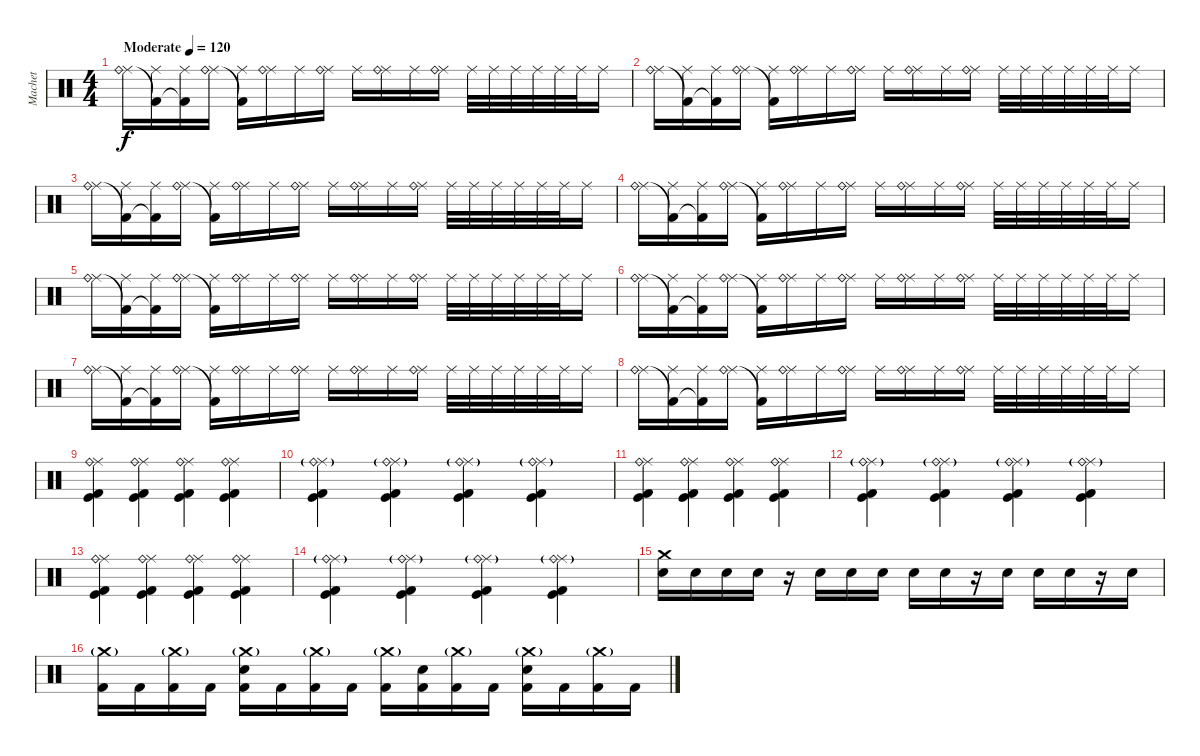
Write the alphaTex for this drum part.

\track ("Machet" "Machet") {instrument percussion}
\staff {score}
\articulation defaults
\ts (4 4)
\tempo (120 "Moderate")
\clef neutral
\ks c
("Ride (middle)" "Ride (bell)").16{dy f} ("Ride (middle)" "Kick (hit) 2"{t}).16 ("Ride (middle)" "Kick (hit) 2"{t}).16 ("Ride (middle)" "Ride (bell)").16 ("Ride (middle)" "Kick (hit) 2"{t}).16 ("Ride (middle)" "Ride (bell)").16 "Ride (middle)".16 ("Ride (middle)" "Ride (bell)").16 "Ride (middle)".16 ("Ride (middle)" "Ride (bell)").16 "Ride (middle)".16 ("Ride (middle)" "Ride (bell)").16 "Ride (middle)".32 "Ride (middle)".32 "Ride (middle)".32 "Ride (middle)".32 "Ride (middle)".32 "Ride (middle)".32 "Ride (middle)".16 |
("Ride (middle)" "Ride (bell)").16 ("Ride (middle)" "Kick (hit) 2"{t}).16 ("Ride (middle)" "Kick (hit) 2"{t}).16 ("Ride (middle)" "Ride (bell)").16 ("Ride (middle)" "Kick (hit) 2"{t}).16 ("Ride (middle)" "Ride (bell)").16 "Ride (middle)".16 ("Ride (middle)" "Ride (bell)").16 "Ride (middle)".16 ("Ride (middle)" "Ride (bell)").16 "Ride (middle)".16 ("Ride (middle)" "Ride (bell)").16 "Ride (middle)".32 "Ride (middle)".32 "Ride (middle)".32 "Ride (middle)".32 "Ride (middle)".32 "Ride (middle)".32 "Ride (middle)".16 |
("Ride (middle)" "Ride (bell)").16 ("Ride (middle)" "Kick (hit) 2"{t}).16 ("Ride (middle)" "Kick (hit) 2"{t}).16 ("Ride (middle)" "Ride (bell)").16 ("Ride (middle)" "Kick (hit) 2"{t}).16 ("Ride (middle)" "Ride (bell)").16 "Ride (middle)".16 ("Ride (middle)" "Ride (bell)").16 "Ride (middle)".16 ("Ride (middle)" "Ride (bell)").16 "Ride (middle)".16 ("Ride (middle)" "Ride (bell)").16 "Ride (middle)".32 "Ride (middle)".32 "Ride (middle)".32 "Ride (middle)".32 "Ride (middle)".32 "Ride (middle)".32 "Ride (middle)".16 |
("Ride (middle)" "Ride (bell)").16 ("Ride (middle)" "Kick (hit) 2"{t}).16 ("Ride (middle)" "Kick (hit) 2"{t}).16 ("Ride (middle)" "Ride (bell)").16 ("Ride (middle)" "Kick (hit) 2"{t}).16 ("Ride (middle)" "Ride (bell)").16 "Ride (middle)".16 ("Ride (middle)" "Ride (bell)").16 "Ride (middle)".16 ("Ride (middle)" "Ride (bell)").16 "Ride (middle)".16 ("Ride (middle)" "Ride (bell)").16 "Ride (middle)".32 "Ride (middle)".32 "Ride (middle)".32 "Ride (middle)".32 "Ride (middle)".32 "Ride (middle)".32 "Ride (middle)".16 |
("Ride (middle)" "Ride (bell)").16 ("Ride (middle)" "Kick (hit) 2"{t}).16 ("Ride (middle)" "Kick (hit) 2"{t}).16 ("Ride (middle)" "Ride (bell)").16 ("Ride (middle)" "Kick (hit) 2"{t}).16 ("Ride (middle)" "Ride (bell)").16 "Ride (middle)".16 ("Ride (middle)" "Ride (bell)").16 "Ride (middle)".16 ("Ride (middle)" "Ride (bell)").16 "Ride (middle)".16 ("Ride (middle)" "Ride (bell)").16 "Ride (middle)".32 "Ride (middle)".32 "Ride (middle)".32 "Ride (middle)".32 "Ride (middle)".32 "Ride (middle)".32 "Ride (middle)".16 |
("Ride (middle)" "Ride (bell)").16 ("Ride (middle)" "Kick (hit) 2"{t}).16 ("Ride (middle)" "Kick (hit) 2"{t}).16 ("Ride (middle)" "Ride (bell)").16 ("Ride (middle)" "Kick (hit) 2"{t}).16 ("Ride (middle)" "Ride (bell)").16 "Ride (middle)".16 ("Ride (middle)" "Ride (bell)").16 "Ride (middle)".16 ("Ride (middle)" "Ride (bell)").16 "Ride (middle)".16 ("Ride (middle)" "Ride (bell)").16 "Ride (middle)".32 "Ride (middle)".32 "Ride (middle)".32 "Ride (middle)".32 "Ride (middle)".32 "Ride (middle)".32 "Ride (middle)".16 |
("Ride (middle)" "Ride (bell)").16 ("Ride (middle)" "Kick (hit) 2"{t}).16 ("Ride (middle)" "Kick (hit) 2"{t}).16 ("Ride (middle)" "Ride (bell)").16 ("Ride (middle)" "Kick (hit) 2"{t}).16 ("Ride (middle)" "Ride (bell)").16 "Ride (middle)".16 ("Ride (middle)" "Ride (bell)").16 "Ride (middle)".16 ("Ride (middle)" "Ride (bell)").16 "Ride (middle)".16 ("Ride (middle)" "Ride (bell)").16 "Ride (middle)".32 "Ride (middle)".32 "Ride (middle)".32 "Ride (middle)".32 "Ride (middle)".32 "Ride (middle)".32 "Ride (middle)".16 |
("Ride (middle)" "Ride (bell)").16 ("Ride (middle)" "Kick (hit) 2"{t}).16 ("Ride (middle)" "Kick (hit) 2"{t}).16 ("Ride (middle)" "Ride (bell)").16 ("Ride (middle)" "Kick (hit) 2"{t}).16 ("Ride (middle)" "Ride (bell)").16 "Ride (middle)".16 ("Ride (middle)" "Ride (bell)").16 "Ride (middle)".16 ("Ride (middle)" "Ride (bell)").16 "Ride (middle)".16 ("Ride (middle)" "Ride (bell)").16 "Ride (middle)".32 "Ride (middle)".32 "Ride (middle)".32 "Ride (middle)".32 "Ride (middle)".32 "Ride (middle)".32 "Ride (middle)".16 |
("Ride (middle)" "Kick (hit) 2" "Kick (hit)" "Ride (bell)").4 ("Ride (middle)" "Kick (hit) 2" "Kick (hit)" "Ride (bell)").4 ("Ride (middle)" "Kick (hit) 2" "Kick (hit)" "Ride (bell)").4 ("Ride (middle)" "Kick (hit) 2" "Kick (hit)" "Ride (bell)").4 |
("Ride (middle)" "Kick (hit) 2" "Kick (hit)" "Ride (bell)"{g}).4 ("Ride (middle)" "Kick (hit) 2" "Kick (hit)" "Ride (bell)"{g}).4 ("Ride (middle)" "Kick (hit) 2" "Kick (hit)" "Ride (bell)"{g}).4 ("Ride (middle)" "Kick (hit) 2" "Kick (hit)" "Ride (bell)"{g}).4 |
("Ride (middle)" "Kick (hit) 2" "Kick (hit)" "Ride (bell)").4 ("Ride (middle)" "Kick (hit) 2" "Kick (hit)" "Ride (bell)").4 ("Ride (middle)" "Kick (hit) 2" "Kick (hit)" "Ride (bell)").4 ("Ride (middle)" "Kick (hit) 2" "Kick (hit)" "Ride (bell)").4 |
("Ride (middle)" "Kick (hit) 2" "Kick (hit)" "Ride (bell)"{g}).4 ("Ride (middle)" "Kick (hit) 2" "Kick (hit)" "Ride (bell)"{g}).4 ("Ride (middle)" "Kick (hit) 2" "Kick (hit)" "Ride (bell)"{g}).4 ("Ride (middle)" "Kick (hit) 2" "Kick (hit)" "Ride (bell)"{g}).4 |
("Ride (middle)" "Kick (hit) 2" "Kick (hit)" "Ride (bell)").4 ("Ride (middle)" "Kick (hit) 2" "Kick (hit)" "Ride (bell)").4 ("Ride (middle)" "Kick (hit) 2" "Kick (hit)" "Ride (bell)").4 ("Ride (middle)" "Kick (hit) 2" "Kick (hit)" "Ride (bell)").4 |
("Ride (middle)" "Kick (hit) 2" "Kick (hit)" "Ride (bell)"{g}).4 ("Ride (middle)" "Kick (hit) 2" "Kick (hit)" "Ride (bell)"{g}).4 ("Ride (middle)" "Kick (hit) 2" "Kick (hit)" "Ride (bell)"{g}).4 ("Ride (middle)" "Kick (hit) 2" "Kick (hit)" "Ride (bell)"{g}).4 |
("Crash medium (hit)" "Snare (hit) 2").16 "Snare (hit) 2".16 "Snare (hit) 2".16 "Snare (hit) 2".16 r.16 "Snare (hit) 2".16 "Snare (hit) 2".16 "Snare (hit) 2".16 "Snare (hit) 2".16 "Snare (hit) 2".16 r.16 "Snare (hit) 2".16 "Snare (hit) 2".16 "Snare (hit) 2".16 r.16 "Snare (hit) 2".16 |
("Crash medium (hit)"{g} "Kick (hit) 2").16 "Kick (hit) 2".16 ("Crash medium (hit)"{g} "Kick (hit) 2").16 "Kick (hit) 2".16 ("Crash medium (hit)"{g} "Snare (hit) 2" "Kick (hit) 2").16 "Kick (hit) 2".16 ("Crash medium (hit)"{g} "Kick (hit) 2").16 "Kick (hit) 2".16 ("Crash medium (hit)"{g} "Kick (hit) 2").16 ("Snare (hit) 2" "Kick (hit) 2").16 ("Crash medium (hit)"{g} "Kick (hit) 2").16 "Kick (hit) 2".16 ("Crash medium (hit)"{g} "Snare (hit) 2" "Kick (hit) 2").16 "Kick (hit) 2".16 ("Crash medium (hit)"{g} "Kick (hit) 2").16 "Kick (hit) 2".16
